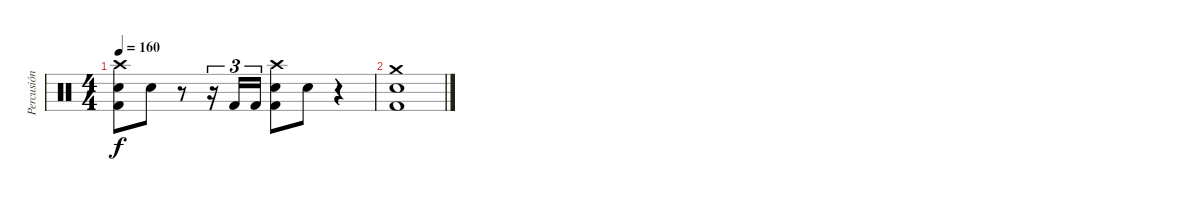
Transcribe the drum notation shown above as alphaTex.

\track ("Percusión" "Percusión") {instrument percussion}
\staff {score}
\articulation defaults
\ts (4 4)
\tempo 160
\clef neutral
\ks c
("Crash high (hit)" "Electric Snare (hit)" "Kick (hit) 2").8{dy f} "Electric Snare (hit)".8 r.8 r.16{tu (3 2)} "Kick (hit) 2".16{tu (3 2)} "Kick (hit) 2".16{tu (3 2)} ("Crash high (hit)" "Electric Snare (hit)" "Kick (hit) 2").8 "Electric Snare (hit)".8 r.4 |
("Crash medium (hit)" "Electric Snare (hit)" "Kick (hit) 2").1
